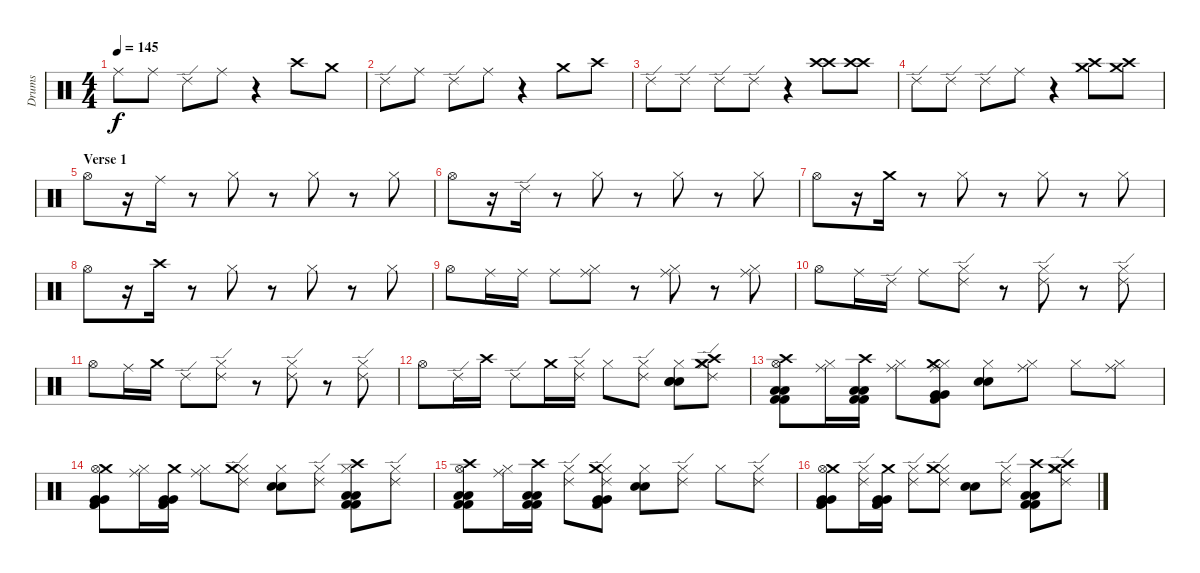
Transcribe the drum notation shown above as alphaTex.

\track ("Drums" "Drums") {instrument percussion}
\staff {score}
\articulation defaults
\ts (4 4)
\tempo 145
\clef neutral
\ks c "Ride (middle)".8{dy f} "Ride (middle)".8 "Ride (edge) 2".8 "Ride (middle)".8
r.4 "Crash high (hit)".8 "Crash medium (hit)".8 |
"Ride (edge) 2".8 "Ride (middle)".8 "Ride (edge) 2".8 "Ride (middle)".8 r.4 "Crash medium (hit)".8 "Crash high (hit)".8 |
"Ride (edge) 2".8 "Ride (edge) 2".8 "Ride (edge) 2".8 "Ride (edge) 2".8 r.4 ("Crash high (hit)" "Crash high (hit)").8 ("Crash high (hit)" "Crash high (hit)").8 |
"Ride (edge) 2".8 "Ride (edge) 2".8 "Ride (edge) 2".8 "Ride (middle)".8 r.4 ("Crash medium (hit)" "Crash high (hit)").8 ("Crash medium (hit)" "Crash high (hit)").8 |
\section ("" "Verse 1")
"Hi-Hat (open)".8 r.16 "Ride (middle)".16 r.8 "Hi-Hat (closed)".8 r.8 "Hi-Hat (closed)".8 r.8 "Hi-Hat (closed)".8 |
"Hi-Hat (open)".8 r.16 "Ride (edge) 2".16 r.8 "Hi-Hat (closed)".8 r.8 "Hi-Hat (closed)".8 r.8 "Hi-Hat (closed)".8 |
"Hi-Hat (open)".8 r.16 "Crash medium (hit)".16 r.8 "Hi-Hat (closed)".8 r.8 "Hi-Hat (closed)".8 r.8 "Hi-Hat (closed)".8 |
"Hi-Hat (open)".8 r.16 "Crash high (hit)".16 r.8 "Hi-Hat (closed)".8 r.8 "Hi-Hat (closed)".8 r.8 "Hi-Hat (closed)".8 |
"Hi-Hat (open)".8 "Ride (middle)".16 "Ride (middle)".16 "Ride (middle)".8 ("Ride (middle)" "Hi-Hat (closed)").8 r.8 ("Ride (middle)" "Hi-Hat (closed)").8 r.8 ("Ride (middle)" "Hi-Hat (closed)").8 |
"Hi-Hat (open)".8 "Ride (middle)".16 "Ride (edge) 2".16 "Ride (middle)".8 ("Ride (edge) 2" "Hi-Hat (closed)").8 r.8 ("Ride (edge) 2" "Hi-Hat (closed)").8 r.8 ("Ride (edge) 2" "Hi-Hat (closed)").8 |
"Hi-Hat (open)".8 "Ride (middle)".16 "Crash medium (hit)".16 "Ride (edge) 2".8 ("Ride (edge) 2" "Hi-Hat (closed)").8 r.8 ("Ride (edge) 2" "Hi-Hat (closed)").8 r.8 ("Ride (edge) 2" "Hi-Hat (closed)").8 |
"Hi-Hat (open)".8 "Ride (edge) 2".16 "Crash high (hit)".16 "Ride (edge) 2".8 "Crash medium (hit)".16 ("Ride (edge) 2" "Hi-Hat (closed)").16 "Hi-Hat (closed)".8 ("Ride (edge) 2" "Hi-Hat (closed)").8 ("Hi-Hat (closed)" "Snare (hit) 2" "Snare (hit) 2" "Snare (hit) 2").8 ("Ride (edge) 2" "Hi-Hat (closed)" "Crash medium (hit)" "Crash high (hit)").8 |
("Crash high (hit)" "Hi-Hat (open)" "Kick (hit) 2" "Low Tom (hit)" "Low Tom (hit)" "Kick (hit) 2").8 ("Ride (middle)" "Hi-Hat (closed)").16 ("Crash high (hit)" "Kick (hit) 2" "Low Tom (hit)" "Low Tom (hit)" "Kick (hit) 2").16 ("Ride (middle)" "Hi-Hat (closed)").8 ("Ride (middle)" "Hi-Hat (closed)" "Crash medium (hit)" "Very Low Tom (hit)" "Very Low Tom (hit)" "Kick (hit) 2").8 ("Hi-Hat (closed)" "Snare (hit) 2" "Snare (hit) 2").8 ("Ride (middle)" "Hi-Hat (closed)").8 "Hi-Hat (closed)".8 ("Ride (middle)" "Hi-Hat (closed)").8 |
("Crash medium (hit)" "Hi-Hat (open)" "Kick (hit) 2" "Very Low Tom (hit)" "Very Low Tom (hit)" "Kick (hit) 2").8 ("Ride (middle)" "Hi-Hat (closed)").16 ("Crash medium (hit)" "Kick (hit) 2" "Very Low Tom (hit)" "Very Low Tom (hit)" "Kick (hit) 2").16 ("Ride (middle)" "Hi-Hat (closed)").8 ("Ride (edge) 2" "Hi-Hat (closed)" "Crash medium (hit)").8 ("Hi-Hat (closed)" "Snare (hit) 2" "Snare (hit) 2").8 ("Ride (edge) 2" "Hi-Hat (closed)").8 ("Crash high (hit)" "Hi-Hat (closed)" "Kick (hit) 2" "Low Tom (hit)" "Low Tom (hit)" "Kick (hit) 2").8 ("Ride (edge) 2" "Hi-Hat (closed)").8 |
("Crash high (hit)" "Hi-Hat (open)" "Kick (hit) 2" "Low Tom (hit)" "Low Tom (hit)" "Kick (hit) 2").8 ("Ride (middle)" "Hi-Hat (closed)").16 ("Crash high (hit)" "Kick (hit) 2" "Low Tom (hit)" "Low Tom (hit)" "Kick (hit) 2").16 ("Ride (edge) 2" "Hi-Hat (closed)").8 ("Ride (edge) 2" "Hi-Hat (closed)" "Crash medium (hit)" "Very Low Tom (hit)" "Very Low Tom (hit)" "Kick (hit) 2").8 ("Hi-Hat (closed)" "Snare (hit) 2" "Snare (hit) 2").8 ("Ride (edge) 2" "Hi-Hat (closed)").8 "Hi-Hat (closed)".8 ("Ride (edge) 2" "Hi-Hat (closed)").8 |
("Crash medium (hit)" "Hi-Hat (open)" "Kick (hit) 2" "Very Low Tom (hit)" "Very Low Tom (hit)" "Kick (hit) 2").8 ("Ride (edge) 2" "Hi-Hat (closed)").16 ("Crash medium (hit)" "Kick (hit) 2" "Very Low Tom (hit)" "Very Low Tom (hit)" "Kick (hit) 2").16 ("Ride (edge) 2" "Hi-Hat (closed)").8 ("Ride (edge) 2" "Hi-Hat (closed)" "Crash medium (hit)").8 ("Snare (hit) 2" "Snare (hit) 2").8 ("Ride (edge) 2" "Hi-Hat (closed)").8 ("Crash high (hit)" "Kick (hit) 2" "Low Tom (hit)" "Low Tom (hit)" "Kick (hit) 2").8 ("Ride (edge) 2" "Hi-Hat (closed)" "Crash medium (hit)" "Crash high (hit)").8
